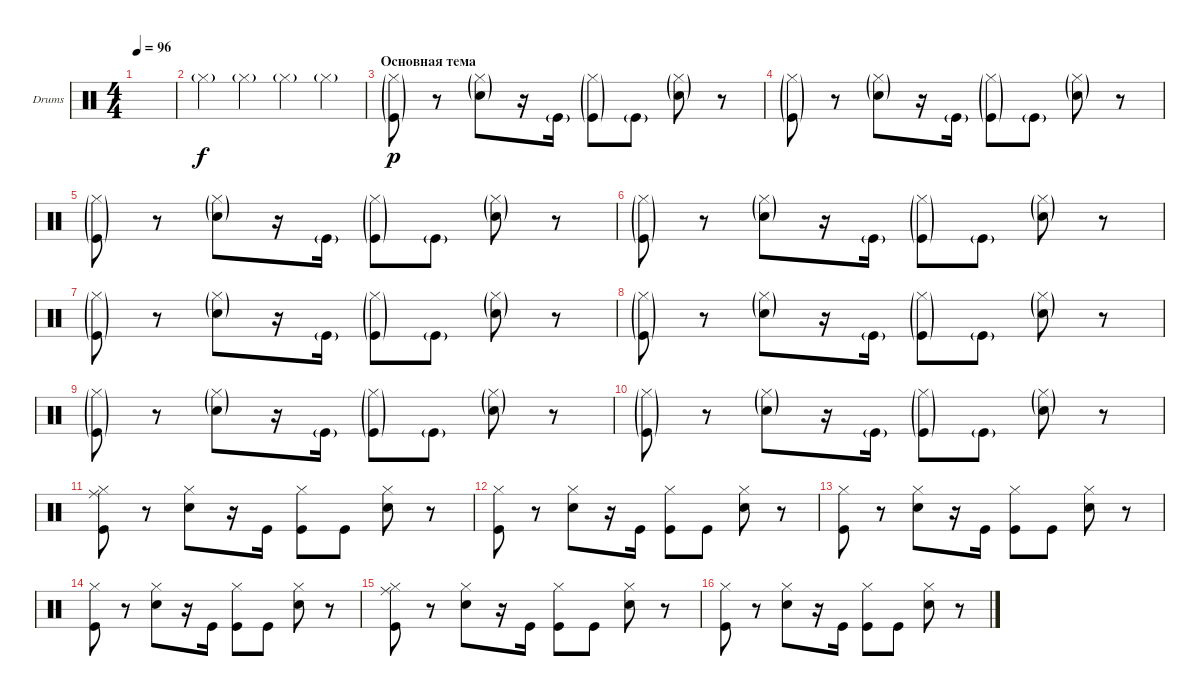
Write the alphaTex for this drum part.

\bracketExtendMode groupsimilarinstruments
\firstSystemTrackNameOrientation horizontal
\otherSystemsTrackNameOrientation horizontal
\track ("Drumkit" "Drums") {instrument percussion}
\staff {score}
\articulation defaults
\ts (4 4)
\tempo 96
\clef neutral
\ks c
|
"Hi-Hat (closed)"{g}.4 "Hi-Hat (closed)"{g}.4 "Hi-Hat (closed)"{g}.4 "Hi-Hat (closed)"{g}.4 |
\section ("" "Основная тема")
("Kick (hit)"{g} "Hi-Hat (closed)"{g}).8{dy p} r.8 ("Hi-Hat (closed)"{g} "Snare (hit) 2"{g}).8 r.16 "Kick (hit)"{g}.16 ("Hi-Hat (closed)"{g} "Kick (hit)"{g}).8 "Kick (hit)"{g}.8 ("Hi-Hat (closed)"{g} "Snare (hit) 2"{g}).8 r.8 |
("Kick (hit)"{g} "Hi-Hat (closed)"{g}).8 r.8 ("Hi-Hat (closed)"{g} "Snare (hit) 2"{g}).8 r.16 "Kick (hit)"{g}.16 ("Hi-Hat (closed)"{g} "Kick (hit)"{g}).8 "Kick (hit)"{g}.8 ("Hi-Hat (closed)"{g} "Snare (hit) 2"{g}).8 r.8 |
("Kick (hit)"{g} "Hi-Hat (closed)"{g}).8 r.8 ("Hi-Hat (closed)"{g} "Snare (hit) 2"{g}).8 r.16 "Kick (hit)"{g}.16 ("Hi-Hat (closed)"{g} "Kick (hit)"{g}).8 "Kick (hit)"{g}.8 ("Hi-Hat (closed)"{g} "Snare (hit) 2"{g}).8 r.8 |
("Kick (hit)"{g} "Hi-Hat (closed)"{g}).8 r.8 ("Hi-Hat (closed)"{g} "Snare (hit) 2"{g}).8 r.16 "Kick (hit)"{g}.16 ("Hi-Hat (closed)"{g} "Kick (hit)"{g}).8 "Kick (hit)"{g}.8 ("Hi-Hat (closed)"{g} "Snare (hit) 2"{g}).8 r.8 |
("Kick (hit)"{g} "Hi-Hat (closed)"{g}).8 r.8 ("Hi-Hat (closed)"{g} "Snare (hit) 2"{g}).8 r.16 "Kick (hit)"{g}.16 ("Hi-Hat (closed)"{g} "Kick (hit)"{g}).8 "Kick (hit)"{g}.8 ("Hi-Hat (closed)"{g} "Snare (hit) 2"{g}).8 r.8 |
("Kick (hit)"{g} "Hi-Hat (closed)"{g}).8 r.8 ("Hi-Hat (closed)"{g} "Snare (hit) 2"{g}).8 r.16 "Kick (hit)"{g}.16 ("Hi-Hat (closed)"{g} "Kick (hit)"{g}).8 "Kick (hit)"{g}.8 ("Hi-Hat (closed)"{g} "Snare (hit) 2"{g}).8 r.8 |
("Kick (hit)"{g} "Hi-Hat (closed)"{g}).8 r.8 ("Hi-Hat (closed)"{g} "Snare (hit) 2"{g}).8 r.16 "Kick (hit)"{g}.16 ("Hi-Hat (closed)"{g} "Kick (hit)"{g}).8 "Kick (hit)"{g}.8 ("Hi-Hat (closed)"{g} "Snare (hit) 2"{g}).8 r.8 |
("Kick (hit)"{g} "Hi-Hat (closed)"{g}).8 r.8 ("Hi-Hat (closed)"{g} "Snare (hit) 2"{g}).8 r.16 "Kick (hit)"{g}.16 ("Hi-Hat (closed)"{g} "Kick (hit)"{g}).8 "Kick (hit)"{g}.8 ("Hi-Hat (closed)"{g} "Snare (hit) 2"{g}).8 r.8 |
("Kick (hit)" "Hi-Hat (closed)" "Ride (middle)").8 r.8 ("Hi-Hat (closed)" "Snare (hit) 2").8 r.16 "Kick (hit)".16 ("Hi-Hat (closed)" "Kick (hit)").8 "Kick (hit)".8 ("Hi-Hat (closed)" "Snare (hit) 2").8 r.8 |
("Kick (hit)" "Hi-Hat (closed)").8 r.8 ("Hi-Hat (closed)" "Snare (hit) 2").8 r.16 "Kick (hit)".16 ("Hi-Hat (closed)" "Kick (hit)").8 "Kick (hit)".8 ("Hi-Hat (closed)" "Snare (hit) 2").8 r.8 |
("Kick (hit)" "Hi-Hat (closed)").8 r.8 ("Hi-Hat (closed)" "Snare (hit) 2").8 r.16 "Kick (hit)".16 ("Hi-Hat (closed)" "Kick (hit)").8 "Kick (hit)".8 ("Hi-Hat (closed)" "Snare (hit) 2").8 r.8 |
("Kick (hit)" "Hi-Hat (closed)").8 r.8 ("Hi-Hat (closed)" "Snare (hit) 2").8 r.16 "Kick (hit)".16 ("Hi-Hat (closed)" "Kick (hit)").8 "Kick (hit)".8 ("Hi-Hat (closed)" "Snare (hit) 2").8 r.8 |
("Kick (hit)" "Hi-Hat (closed)" "Ride (middle)").8 r.8 ("Hi-Hat (closed)" "Snare (hit) 2").8 r.16 "Kick (hit)".16 ("Hi-Hat (closed)" "Kick (hit)").8 "Kick (hit)".8 ("Hi-Hat (closed)" "Snare (hit) 2").8 r.8 |
("Kick (hit)" "Hi-Hat (closed)").8 r.8 ("Hi-Hat (closed)" "Snare (hit) 2").8 r.16 "Kick (hit)".16 ("Hi-Hat (closed)" "Kick (hit)").8 "Kick (hit)".8 ("Hi-Hat (closed)" "Snare (hit) 2").8 r.8
